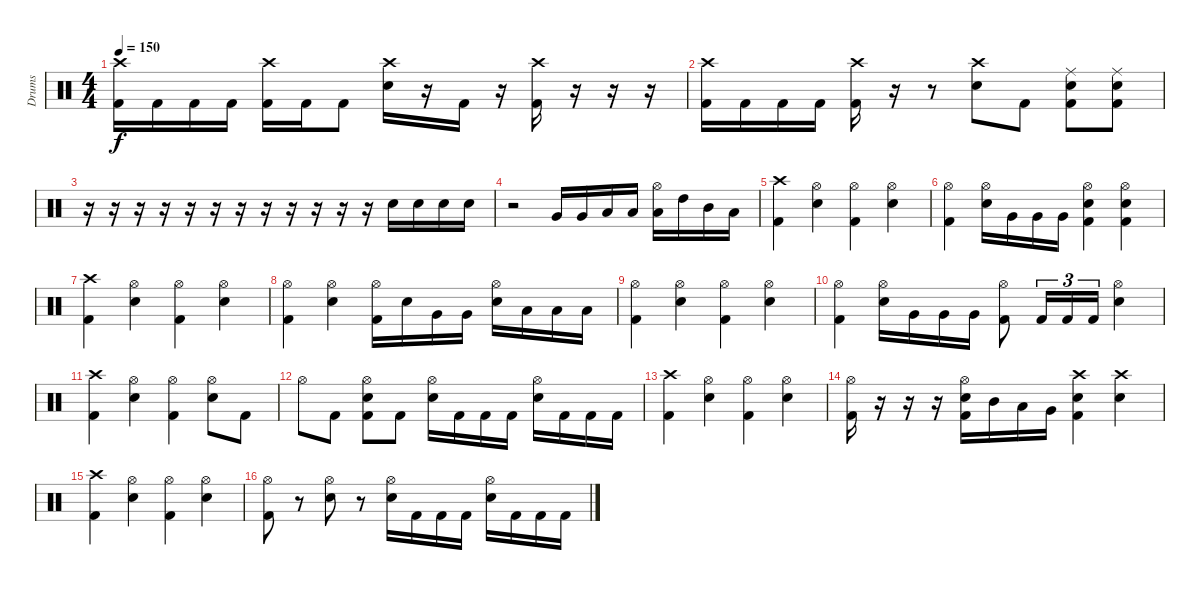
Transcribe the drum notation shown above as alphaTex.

\track ("Drums" "Drums") {instrument percussion}
\staff {score}
\articulation defaults
\ts (4 4)
\tempo 150
\clef neutral
\ks c
("Crash high (hit)" "Kick (hit) 2").16{dy f} "Kick (hit) 2".16 "Kick (hit) 2".16 "Kick (hit) 2".16 ("Crash high (hit)" "Kick (hit) 2").16 "Kick (hit) 2".16 "Kick (hit) 2".8 ("Crash high (hit)" "Electric Snare (hit)").16 r.16 "Kick (hit) 2".16 r.16 ("Crash high (hit)" "Kick (hit) 2").16 r.16 r.16 r.16 |
("Crash high (hit)" "Kick (hit) 2").16 "Kick (hit) 2".16 "Kick (hit) 2".16 "Kick (hit) 2".16 ("Crash high (hit)" "Kick (hit) 2").16 r.16 r.8 ("Crash high (hit)" "Electric Snare (hit)").8 "Kick (hit) 2".8 ("Ride (middle)" "Electric Snare (hit)" "Kick (hit) 2").8 ("Ride (middle)" "Electric Snare (hit)" "Kick (hit) 2").8 |
r.16 r.16 r.16 r.16 r.16 r.16 r.16 r.16 r.16 r.16 r.16 r.16 "Electric Snare (hit)".16 "Electric Snare (hit)".16 "Electric Snare (hit)".16 "Electric Snare (hit)".16 |
r.2 "Very Low Tom (hit)".16 "Very Low Tom (hit)".16 "Low Floor Tom (hit)".16 "Low Tom (hit)".16 ("Hi-Hat (open)" "Low Tom (hit)").16 "High Tom (hit)".16 "Mid Tom (hit)".16 "Low Tom (hit)".16 |
("Crash high (hit)" "Kick (hit) 2").4 ("Hi-Hat (open)" "Electric Snare (hit)").4 ("Hi-Hat (open)" "Kick (hit) 2").4 ("Hi-Hat (open)" "Electric Snare (hit)").4 |
("Hi-Hat (open)" "Kick (hit) 2").4 ("Hi-Hat (open)" "Electric Snare (hit)").16 "Very Low Tom (hit)".16 "Very Low Tom (hit)".16 "Very Low Tom (hit)".16 ("Hi-Hat (open)" "Electric Snare (hit)" "Kick (hit) 2").4 ("Hi-Hat (open)" "Electric Snare (hit)" "Kick (hit) 2").4 |
("Crash high (hit)" "Kick (hit) 2").4 ("Hi-Hat (open)" "Electric Snare (hit)").4 ("Hi-Hat (open)" "Kick (hit) 2").4 ("Hi-Hat (open)" "Electric Snare (hit)").4 |
("Hi-Hat (open)" "Kick (hit) 2").4 ("Hi-Hat (open)" "Electric Snare (hit)").4 ("Hi-Hat (open)" "Kick (hit) 2").16 "Electric Snare (hit)".16 "Very Low Tom (hit)".16 "Very Low Tom (hit)".16 ("Hi-Hat (open)" "Electric Snare (hit)").16 "Low Floor Tom (hit)".16 "Low Floor Tom (hit)".16 "Low Floor Tom (hit)".16 |
("Hi-Hat (open)" "Kick (hit) 2").4 ("Hi-Hat (open)" "Electric Snare (hit)").4 ("Hi-Hat (open)" "Kick (hit) 2").4 ("Hi-Hat (open)" "Electric Snare (hit)").4 |
("Hi-Hat (open)" "Kick (hit) 2").4 ("Hi-Hat (open)" "Electric Snare (hit)").16 "Very Low Tom (hit)".16 "Very Low Tom (hit)".16 "Very Low Tom (hit)".16 ("Hi-Hat (open)" "Kick (hit) 2").8 "Kick (hit) 2".16{tu (3 2)} "Kick (hit) 2".16{tu (3 2)} "Kick (hit) 2".16{tu (3 2)} ("Hi-Hat (open)" "Electric Snare (hit)").4 |
("Crash high (hit)" "Kick (hit) 2").4 ("Hi-Hat (open)" "Electric Snare (hit)").4 ("Hi-Hat (open)" "Kick (hit) 2").4 ("Hi-Hat (open)" "Electric Snare (hit)").8 "Kick (hit) 2".8 |
"Hi-Hat (open)".8 "Kick (hit) 2".8 ("Hi-Hat (open)" "Electric Snare (hit)" "Kick (hit) 2").8 "Kick (hit) 2".8 ("Hi-Hat (open)" "Electric Snare (hit)").16 "Kick (hit) 2".16 "Kick (hit) 2".16 "Kick (hit) 2".16 ("Hi-Hat (open)" "Electric Snare (hit)").16 "Kick (hit) 2".16 "Kick (hit) 2".16 "Kick (hit) 2".16 |
("Crash high (hit)" "Kick (hit) 2").4 ("Hi-Hat (open)" "Electric Snare (hit)").4 ("Hi-Hat (open)" "Kick (hit) 2").4 ("Hi-Hat (open)" "Electric Snare (hit)").4 |
("Hi-Hat (open)" "Kick (hit) 2").16 r.16 r.16 r.16 ("Hi-Hat (open)" "Electric Snare (hit)" "Kick (hit) 2").16 "Mid Tom (hit)".16 "Low Tom (hit)".16 "Very Low Tom (hit)".16 ("Crash high (hit)" "Electric Snare (hit)" "Kick (hit) 2").4 ("Crash high (hit)" "Electric Snare (hit)").4 |
("Crash high (hit)" "Kick (hit) 2").4 ("Hi-Hat (open)" "Electric Snare (hit)").4 ("Hi-Hat (open)" "Kick (hit) 2").4 ("Hi-Hat (open)" "Electric Snare (hit)").4 |
("Hi-Hat (open)" "Kick (hit) 2").8 r.8 ("Hi-Hat (open)" "Electric Snare (hit)").8 r.8 ("Hi-Hat (open)" "Electric Snare (hit)").16 "Kick (hit) 2".16 "Kick (hit) 2".16 "Kick (hit) 2".16 ("Hi-Hat (open)" "Electric Snare (hit)").16 "Kick (hit) 2".16 "Kick (hit) 2".16 "Kick (hit) 2".16
